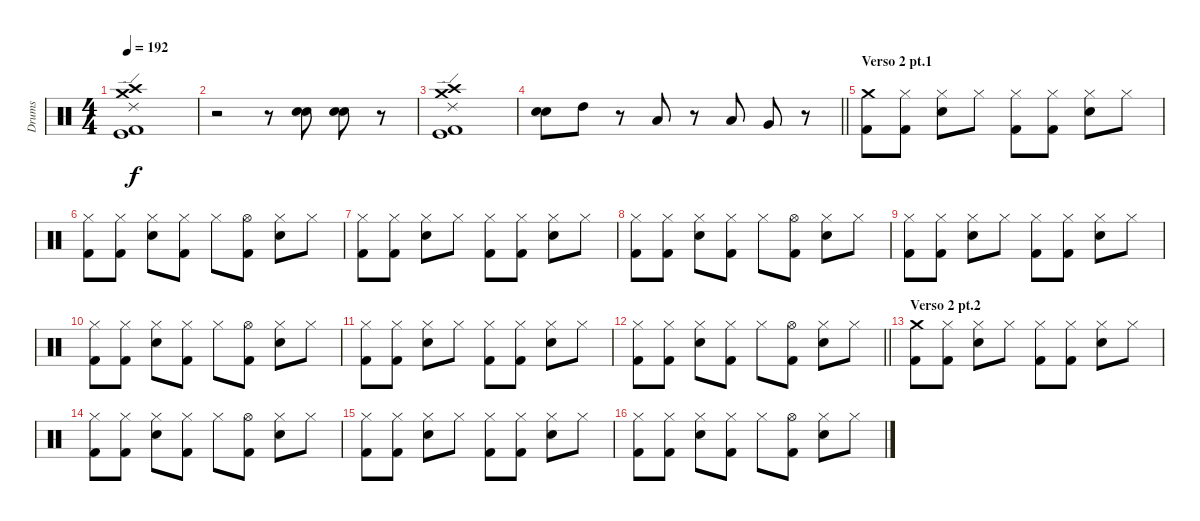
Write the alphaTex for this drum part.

\track ("Drums" "Drums") {instrument percussion}
\staff {score}
\articulation defaults
\ts (4 4)
\tempo 192
\clef neutral
\ks c
("Crash medium (hit)" "Ride (edge) 2" "Crash high (hit)" "Kick (hit)" "Kick (hit) 2").1{dy f} |
r.2 r.8 ("Electric Snare (hit)" "Snare (hit) 2").8 ("Electric Snare (hit)" "Snare (hit) 2").8 r.8 |
("Crash medium (hit)" "Ride (edge) 2" "Crash high (hit)" "Kick (hit)" "Kick (hit) 2").1 |
\barLineRight lightlight
("Snare (hit) 2" "Electric Snare (hit)").8 "High Tom (hit)".8 r.8 "Low Tom (hit)".8 r.8 "Low Tom (hit)".8 "Very Low Tom (hit)".8 r.8 |
\section ("" "Verso 2 pt.1")
("Crash medium (hit)" "Kick (hit) 2").8 ("Hi-Hat (closed)" "Kick (hit) 2").8 ("Hi-Hat (closed)" "Snare (hit) 2").8 "Hi-Hat (closed)".8 ("Hi-Hat (closed)" "Kick (hit) 2").8 ("Hi-Hat (closed)" "Kick (hit) 2").8 ("Hi-Hat (closed)" "Snare (hit) 2").8 "Hi-Hat (closed)".8 |
("Hi-Hat (closed)" "Kick (hit) 2").8 ("Hi-Hat (closed)" "Kick (hit) 2").8 ("Hi-Hat (closed)" "Snare (hit) 2").8 ("Hi-Hat (closed)" "Kick (hit) 2").8 "Hi-Hat (closed)".8 ("Hi-Hat (open)" "Kick (hit) 2").8 ("Hi-Hat (closed)" "Snare (hit) 2").8 "Hi-Hat (closed)".8 |
("Hi-Hat (closed)" "Kick (hit) 2").8 ("Hi-Hat (closed)" "Kick (hit) 2").8 ("Hi-Hat (closed)" "Snare (hit) 2").8 "Hi-Hat (closed)".8 ("Hi-Hat (closed)" "Kick (hit) 2").8 ("Hi-Hat (closed)" "Kick (hit) 2").8 ("Hi-Hat (closed)" "Snare (hit) 2").8 "Hi-Hat (closed)".8 |
("Hi-Hat (closed)" "Kick (hit) 2").8 ("Hi-Hat (closed)" "Kick (hit) 2").8 ("Hi-Hat (closed)" "Snare (hit) 2").8 ("Hi-Hat (closed)" "Kick (hit) 2").8 "Hi-Hat (closed)".8 ("Hi-Hat (open)" "Kick (hit) 2").8 ("Hi-Hat (closed)" "Snare (hit) 2").8 "Hi-Hat (closed)".8 |
("Hi-Hat (closed)" "Kick (hit) 2").8 ("Hi-Hat (closed)" "Kick (hit) 2").8 ("Hi-Hat (closed)" "Snare (hit) 2").8 "Hi-Hat (closed)".8 ("Hi-Hat (closed)" "Kick (hit) 2").8 ("Hi-Hat (closed)" "Kick (hit) 2").8 ("Hi-Hat (closed)" "Snare (hit) 2").8 "Hi-Hat (closed)".8 |
("Hi-Hat (closed)" "Kick (hit) 2").8 ("Hi-Hat (closed)" "Kick (hit) 2").8 ("Hi-Hat (closed)" "Snare (hit) 2").8 ("Hi-Hat (closed)" "Kick (hit) 2").8 "Hi-Hat (closed)".8 ("Hi-Hat (open)" "Kick (hit) 2").8 ("Hi-Hat (closed)" "Snare (hit) 2").8 "Hi-Hat (closed)".8 |
("Hi-Hat (closed)" "Kick (hit) 2").8 ("Hi-Hat (closed)" "Kick (hit) 2").8 ("Hi-Hat (closed)" "Snare (hit) 2").8 "Hi-Hat (closed)".8 ("Hi-Hat (closed)" "Kick (hit) 2").8 ("Hi-Hat (closed)" "Kick (hit) 2").8 ("Hi-Hat (closed)" "Snare (hit) 2").8 "Hi-Hat (closed)".8 |
\barLineRight lightlight
("Hi-Hat (closed)" "Kick (hit) 2").8 ("Hi-Hat (closed)" "Kick (hit) 2").8 ("Hi-Hat (closed)" "Snare (hit) 2").8 ("Hi-Hat (closed)" "Kick (hit) 2").8 "Hi-Hat (closed)".8 ("Hi-Hat (open)" "Kick (hit) 2").8 ("Hi-Hat (closed)" "Snare (hit) 2").8 "Hi-Hat (closed)".8 |
\section ("" "Verso 2 pt.2")
("Crash medium (hit)" "Kick (hit) 2").8 ("Hi-Hat (closed)" "Kick (hit) 2").8 ("Hi-Hat (closed)" "Snare (hit) 2").8 "Hi-Hat (closed)".8 ("Hi-Hat (closed)" "Kick (hit) 2").8 ("Hi-Hat (closed)" "Kick (hit) 2").8 ("Hi-Hat (closed)" "Snare (hit) 2").8 "Hi-Hat (closed)".8 |
("Hi-Hat (closed)" "Kick (hit) 2").8 ("Hi-Hat (closed)" "Kick (hit) 2").8 ("Hi-Hat (closed)" "Snare (hit) 2").8 ("Hi-Hat (closed)" "Kick (hit) 2").8 "Hi-Hat (closed)".8 ("Hi-Hat (open)" "Kick (hit) 2").8 ("Hi-Hat (closed)" "Snare (hit) 2").8 "Hi-Hat (closed)".8 |
("Hi-Hat (closed)" "Kick (hit) 2").8 ("Hi-Hat (closed)" "Kick (hit) 2").8 ("Hi-Hat (closed)" "Snare (hit) 2").8 "Hi-Hat (closed)".8 ("Hi-Hat (closed)" "Kick (hit) 2").8 ("Hi-Hat (closed)" "Kick (hit) 2").8 ("Hi-Hat (closed)" "Snare (hit) 2").8 "Hi-Hat (closed)".8 |
("Hi-Hat (closed)" "Kick (hit) 2").8 ("Hi-Hat (closed)" "Kick (hit) 2").8 ("Hi-Hat (closed)" "Snare (hit) 2").8 ("Hi-Hat (closed)" "Kick (hit) 2").8 "Hi-Hat (closed)".8 ("Hi-Hat (open)" "Kick (hit) 2").8 ("Hi-Hat (closed)" "Snare (hit) 2").8 "Hi-Hat (closed)".8
